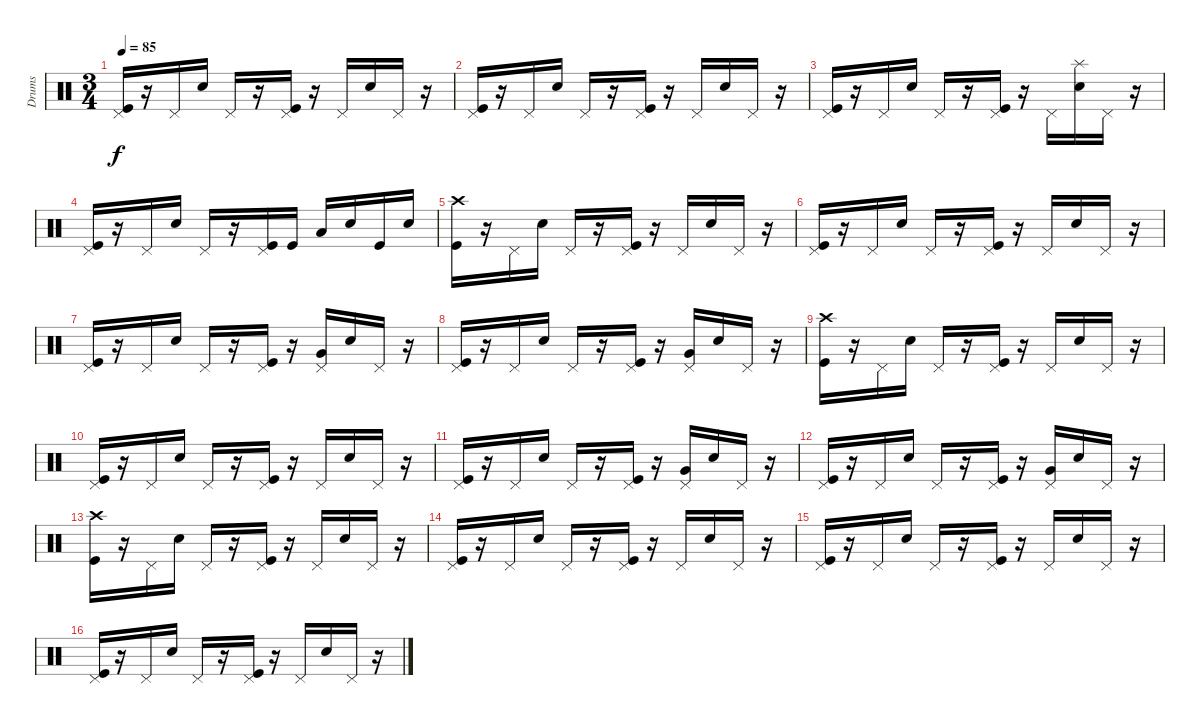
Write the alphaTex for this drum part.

\track ("Drums" "Drums") {instrument percussion}
\staff {score}
\articulation defaults
\ts (3 4)
\tempo 85
\clef neutral
\ks c
("Pedal Hi-Hat (hit)" "Kick (hit)").16{dy f} r.16 "Pedal Hi-Hat (hit)".16 "Electric Snare (hit)".16 "Pedal Hi-Hat (hit)".16 r.16 ("Pedal Hi-Hat (hit)" "Kick (hit)").16 r.16 "Pedal Hi-Hat (hit)".16 "Electric Snare (hit)".16 "Pedal Hi-Hat (hit)".16 r.16 |
("Pedal Hi-Hat (hit)" "Kick (hit)").16 r.16 "Pedal Hi-Hat (hit)".16 "Electric Snare (hit)".16 "Pedal Hi-Hat (hit)".16 r.16 ("Pedal Hi-Hat (hit)" "Kick (hit)").16 r.16 "Pedal Hi-Hat (hit)".16 "Electric Snare (hit)".16 "Pedal Hi-Hat (hit)".16 r.16 |
("Pedal Hi-Hat (hit)" "Kick (hit)").16 r.16 "Pedal Hi-Hat (hit)".16 "Electric Snare (hit)".16 "Pedal Hi-Hat (hit)".16 r.16 ("Pedal Hi-Hat (hit)" "Kick (hit)").16 r.16 "Pedal Hi-Hat (hit)".16 ("Splash (hit)" "Electric Snare (hit)").16 "Pedal Hi-Hat (hit)".16 r.16 |
("Pedal Hi-Hat (hit)" "Kick (hit)").16 r.16 "Pedal Hi-Hat (hit)".16 "Electric Snare (hit)".16 "Pedal Hi-Hat (hit)".16 r.16 ("Pedal Hi-Hat (hit)" "Kick (hit)").16 "Kick (hit)".16 "Low Tom (hit)".16 "Electric Snare (hit)".16 "Kick (hit)".16 "Electric Snare (hit)".16 |
("Crash high (hit)" "Kick (hit)").16 r.16 "Pedal Hi-Hat (hit)".16 "Electric Snare (hit)".16 "Pedal Hi-Hat (hit)".16 r.16 ("Pedal Hi-Hat (hit)" "Kick (hit)").16 r.16 "Pedal Hi-Hat (hit)".16 "Electric Snare (hit)".16 "Pedal Hi-Hat (hit)".16 r.16 |
("Pedal Hi-Hat (hit)" "Kick (hit)").16 r.16 "Pedal Hi-Hat (hit)".16 "Electric Snare (hit)".16 "Pedal Hi-Hat (hit)".16 r.16 ("Pedal Hi-Hat (hit)" "Kick (hit)").16 r.16 "Pedal Hi-Hat (hit)".16 "Electric Snare (hit)".16 "Pedal Hi-Hat (hit)".16 r.16 |
("Pedal Hi-Hat (hit)" "Kick (hit)").16 r.16 "Pedal Hi-Hat (hit)".16 "Electric Snare (hit)".16 "Pedal Hi-Hat (hit)".16 r.16 ("Pedal Hi-Hat (hit)" "Kick (hit)").16 r.16 ("Pedal Hi-Hat (hit)" "Very Low Tom (hit)").16 "Electric Snare (hit)".16 "Pedal Hi-Hat (hit)".16 r.16 |
("Pedal Hi-Hat (hit)" "Kick (hit)").16 r.16 "Pedal Hi-Hat (hit)".16 "Electric Snare (hit)".16 "Pedal Hi-Hat (hit)".16 r.16 ("Pedal Hi-Hat (hit)" "Kick (hit)").16 r.16 ("Pedal Hi-Hat (hit)" "Very Low Tom (hit)").16 "Electric Snare (hit)".16 "Pedal Hi-Hat (hit)".16 r.16 |
("Crash high (hit)" "Kick (hit)").16 r.16 "Pedal Hi-Hat (hit)".16 "Electric Snare (hit)".16 "Pedal Hi-Hat (hit)".16 r.16 ("Pedal Hi-Hat (hit)" "Kick (hit)").16 r.16 "Pedal Hi-Hat (hit)".16 "Electric Snare (hit)".16 "Pedal Hi-Hat (hit)".16 r.16 |
("Pedal Hi-Hat (hit)" "Kick (hit)").16 r.16 "Pedal Hi-Hat (hit)".16 "Electric Snare (hit)".16 "Pedal Hi-Hat (hit)".16 r.16 ("Pedal Hi-Hat (hit)" "Kick (hit)").16 r.16 "Pedal Hi-Hat (hit)".16 "Electric Snare (hit)".16 "Pedal Hi-Hat (hit)".16 r.16 |
("Pedal Hi-Hat (hit)" "Kick (hit)").16 r.16 "Pedal Hi-Hat (hit)".16 "Electric Snare (hit)".16 "Pedal Hi-Hat (hit)".16 r.16 ("Pedal Hi-Hat (hit)" "Kick (hit)").16 r.16 ("Pedal Hi-Hat (hit)" "Very Low Tom (hit)").16 "Electric Snare (hit)".16 "Pedal Hi-Hat (hit)".16 r.16 |
("Pedal Hi-Hat (hit)" "Kick (hit)").16 r.16 "Pedal Hi-Hat (hit)".16 "Electric Snare (hit)".16 "Pedal Hi-Hat (hit)".16 r.16 ("Pedal Hi-Hat (hit)" "Kick (hit)").16 r.16 ("Pedal Hi-Hat (hit)" "Very Low Tom (hit)").16 "Electric Snare (hit)".16 "Pedal Hi-Hat (hit)".16 r.16 |
("Crash high (hit)" "Kick (hit)").16 r.16 "Pedal Hi-Hat (hit)".16 "Electric Snare (hit)".16 "Pedal Hi-Hat (hit)".16 r.16 ("Pedal Hi-Hat (hit)" "Kick (hit)").16 r.16 "Pedal Hi-Hat (hit)".16 "Electric Snare (hit)".16 "Pedal Hi-Hat (hit)".16 r.16 |
("Pedal Hi-Hat (hit)" "Kick (hit)").16 r.16 "Pedal Hi-Hat (hit)".16 "Electric Snare (hit)".16 "Pedal Hi-Hat (hit)".16 r.16 ("Pedal Hi-Hat (hit)" "Kick (hit)").16 r.16 "Pedal Hi-Hat (hit)".16 "Electric Snare (hit)".16 "Pedal Hi-Hat (hit)".16 r.16 |
("Pedal Hi-Hat (hit)" "Kick (hit)").16 r.16 "Pedal Hi-Hat (hit)".16 "Electric Snare (hit)".16 "Pedal Hi-Hat (hit)".16 r.16 ("Pedal Hi-Hat (hit)" "Kick (hit)").16 r.16 "Pedal Hi-Hat (hit)".16 "Electric Snare (hit)".16 "Pedal Hi-Hat (hit)".16 r.16 |
("Pedal Hi-Hat (hit)" "Kick (hit)").16 r.16 "Pedal Hi-Hat (hit)".16 "Electric Snare (hit)".16 "Pedal Hi-Hat (hit)".16 r.16 ("Pedal Hi-Hat (hit)" "Kick (hit)").16 r.16 "Pedal Hi-Hat (hit)".16 "Electric Snare (hit)".16 "Pedal Hi-Hat (hit)".16 r.16
